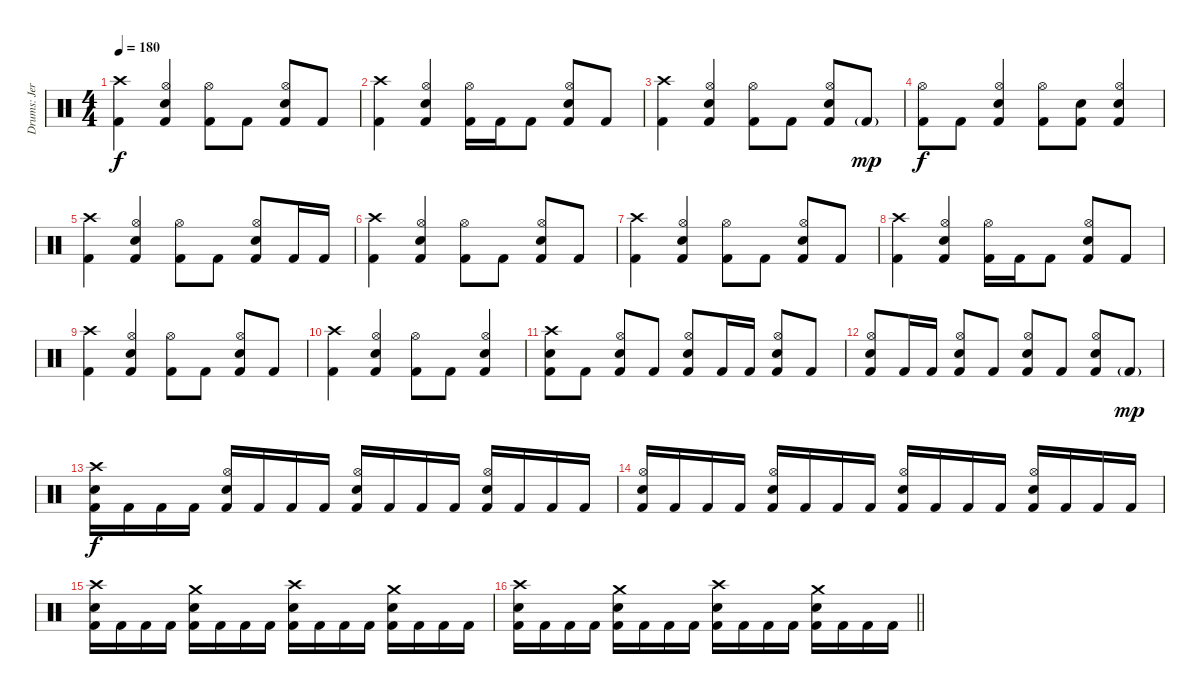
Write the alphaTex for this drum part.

\track ("Drums: Jere Luokkamäki" "Drums: Jer") {instrument percussion}
\staff {score}
\articulation defaults
\ts (4 4)
\tempo 180
\clef neutral
\ks aminor
("Crash high (hit)" "Kick (hit) 2").4{dy f} ("Hi-Hat (open)" "Electric Snare (hit)" "Kick (hit) 2").4 ("Hi-Hat (open)" "Kick (hit) 2").8 "Kick (hit) 2".8 ("Hi-Hat (open)" "Electric Snare (hit)" "Kick (hit) 2").8 "Kick (hit) 2".8 |
("Crash high (hit)" "Kick (hit) 2").4 ("Hi-Hat (open)" "Electric Snare (hit)" "Kick (hit) 2").4 ("Hi-Hat (open)" "Kick (hit) 2").16 "Kick (hit) 2".16 "Kick (hit) 2".8 ("Hi-Hat (open)" "Electric Snare (hit)" "Kick (hit) 2").8 "Kick (hit) 2".8 |
("Crash high (hit)" "Kick (hit) 2").4 ("Hi-Hat (open)" "Electric Snare (hit)" "Kick (hit) 2").4 ("Hi-Hat (open)" "Kick (hit) 2").8 "Kick (hit) 2".8 ("Hi-Hat (open)" "Electric Snare (hit)" "Kick (hit) 2").8 "Kick (hit) 2"{g}.8{dy mp} |
("Hi-Hat (open)" "Kick (hit) 2").8{dy f} "Kick (hit) 2".8 ("Hi-Hat (open)" "Electric Snare (hit)" "Kick (hit) 2").4 ("Hi-Hat (open)" "Kick (hit) 2").8 ("Electric Snare (hit)" "Kick (hit) 2").8 ("Hi-Hat (open)" "Electric Snare (hit)" "Kick (hit) 2").4 |
("Crash high (hit)" "Kick (hit) 2").4 ("Hi-Hat (open)" "Electric Snare (hit)" "Kick (hit) 2").4 ("Hi-Hat (open)" "Kick (hit) 2").8 "Kick (hit) 2".8 ("Hi-Hat (open)" "Electric Snare (hit)" "Kick (hit) 2").8 "Kick (hit) 2".16 "Kick (hit) 2".16 |
("Crash high (hit)" "Kick (hit) 2").4 ("Hi-Hat (open)" "Electric Snare (hit)" "Kick (hit) 2").4 ("Hi-Hat (open)" "Kick (hit) 2").8 "Kick (hit) 2".8 ("Hi-Hat (open)" "Electric Snare (hit)" "Kick (hit) 2").8 "Kick (hit) 2".8 |
("Crash high (hit)" "Kick (hit) 2").4 ("Hi-Hat (open)" "Electric Snare (hit)" "Kick (hit) 2").4 ("Hi-Hat (open)" "Kick (hit) 2").8 "Kick (hit) 2".8 ("Hi-Hat (open)" "Electric Snare (hit)" "Kick (hit) 2").8 "Kick (hit) 2".8 |
("Crash high (hit)" "Kick (hit) 2").4 ("Hi-Hat (open)" "Electric Snare (hit)" "Kick (hit) 2").4 ("Hi-Hat (open)" "Kick (hit) 2").16 "Kick (hit) 2".16 "Kick (hit) 2".8 ("Hi-Hat (open)" "Electric Snare (hit)" "Kick (hit) 2").8 "Kick (hit) 2".8 |
("Crash high (hit)" "Kick (hit) 2").4 ("Hi-Hat (open)" "Electric Snare (hit)" "Kick (hit) 2").4 ("Hi-Hat (open)" "Kick (hit) 2").8 "Kick (hit) 2".8 ("Hi-Hat (open)" "Electric Snare (hit)" "Kick (hit) 2").8 "Kick (hit) 2".8 |
("Crash high (hit)" "Kick (hit) 2").4 ("Hi-Hat (open)" "Electric Snare (hit)" "Kick (hit) 2").4 ("Hi-Hat (open)" "Kick (hit) 2").8 "Kick (hit) 2".8 ("Hi-Hat (open)" "Electric Snare (hit)" "Kick (hit) 2").4 |
("Crash high (hit)" "Electric Snare (hit)" "Kick (hit) 2").8 "Kick (hit) 2".8 ("Hi-Hat (open)" "Electric Snare (hit)" "Kick (hit) 2").8 "Kick (hit) 2".8 ("Hi-Hat (open)" "Electric Snare (hit)" "Kick (hit) 2").8 "Kick (hit) 2".16 "Kick (hit) 2".16 ("Hi-Hat (open)" "Electric Snare (hit)" "Kick (hit) 2").8 "Kick (hit) 2".8 |
("Hi-Hat (open)" "Electric Snare (hit)" "Kick (hit) 2").8 "Kick (hit) 2".16 "Kick (hit) 2".16 ("Hi-Hat (open)" "Electric Snare (hit)" "Kick (hit) 2").8 "Kick (hit) 2".8 ("Hi-Hat (open)" "Electric Snare (hit)" "Kick (hit) 2").8 "Kick (hit) 2".8 ("Hi-Hat (open)" "Electric Snare (hit)" "Kick (hit) 2").8 "Kick (hit) 2"{g}.8{dy mp} |
("Crash high (hit)" "Electric Snare (hit)" "Kick (hit) 2").16{dy f} "Kick (hit) 2".16 "Kick (hit) 2".16 "Kick (hit) 2".16 ("Hi-Hat (open)" "Electric Snare (hit)" "Kick (hit) 2").16 "Kick (hit) 2".16 "Kick (hit) 2".16 "Kick (hit) 2".16 ("Hi-Hat (open)" "Electric Snare (hit)" "Kick (hit) 2").16 "Kick (hit) 2".16 "Kick (hit) 2".16 "Kick (hit) 2".16 ("Hi-Hat (open)" "Electric Snare (hit)" "Kick (hit) 2").16 "Kick (hit) 2".16 "Kick (hit) 2".16 "Kick (hit) 2".16 |
("Hi-Hat (open)" "Electric Snare (hit)" "Kick (hit) 2").16 "Kick (hit) 2".16 "Kick (hit) 2".16 "Kick (hit) 2".16 ("Hi-Hat (open)" "Electric Snare (hit)" "Kick (hit) 2").16 "Kick (hit) 2".16 "Kick (hit) 2".16 "Kick (hit) 2".16 ("Hi-Hat (open)" "Electric Snare (hit)" "Kick (hit) 2").16 "Kick (hit) 2".16 "Kick (hit) 2".16 "Kick (hit) 2".16 ("Hi-Hat (open)" "Electric Snare (hit)" "Kick (hit) 2").16 "Kick (hit) 2".16 "Kick (hit) 2".16 "Kick (hit) 2".16 |
("Crash high (hit)" "Electric Snare (hit)" "Kick (hit) 2").16 "Kick (hit) 2".16 "Kick (hit) 2".16 "Kick (hit) 2".16 ("Crash medium (hit)" "Electric Snare (hit)" "Kick (hit) 2").16 "Kick (hit) 2".16 "Kick (hit) 2".16 "Kick (hit) 2".16 ("Crash high (hit)" "Electric Snare (hit)" "Kick (hit) 2").16 "Kick (hit) 2".16 "Kick (hit) 2".16 "Kick (hit) 2".16 ("Crash medium (hit)" "Electric Snare (hit)" "Kick (hit) 2").16 "Kick (hit) 2".16 "Kick (hit) 2".16 "Kick (hit) 2".16 |
\barLineRight lightlight
("Crash high (hit)" "Electric Snare (hit)" "Kick (hit) 2").16 "Kick (hit) 2".16 "Kick (hit) 2".16 "Kick (hit) 2".16 ("Crash medium (hit)" "Electric Snare (hit)" "Kick (hit) 2").16 "Kick (hit) 2".16 "Kick (hit) 2".16 "Kick (hit) 2".16 ("Crash high (hit)" "Electric Snare (hit)" "Kick (hit) 2").16 "Kick (hit) 2".16 "Kick (hit) 2".16 "Kick (hit) 2".16 ("Crash medium (hit)" "Electric Snare (hit)" "Kick (hit) 2").16 "Kick (hit) 2".16 "Kick (hit) 2".16 "Kick (hit) 2".16
